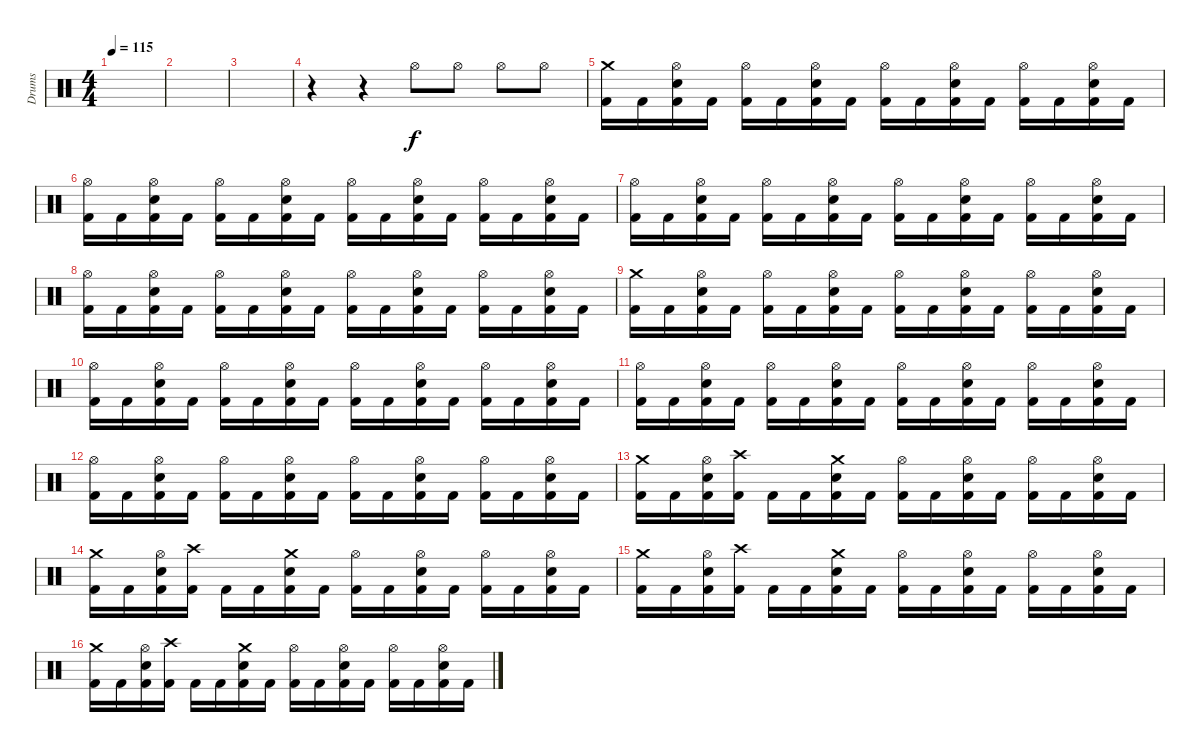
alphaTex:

\track ("Drums" "Drums") {instrument percussion}
\staff {score}
\articulation defaults
\ts (4 4)
\tempo 115
\clef neutral
\ks c
|
|
|
r.4 r.4 "Hi-Hat (open)".8 "Hi-Hat (open)".8 "Hi-Hat (open)".8 "Hi-Hat (open)".8 |
("Crash medium (hit)" "Kick (hit) 2").16 "Kick (hit) 2".16 ("Hi-Hat (open)" "Electric Snare (hit)" "Kick (hit) 2").16 "Kick (hit) 2".16 ("Hi-Hat (open)" "Kick (hit) 2").16 "Kick (hit) 2".16 ("Hi-Hat (open)" "Electric Snare (hit)" "Kick (hit) 2").16 "Kick (hit) 2".16 ("Hi-Hat (open)" "Kick (hit) 2").16 "Kick (hit) 2".16 ("Hi-Hat (open)" "Electric Snare (hit)" "Kick (hit) 2").16 "Kick (hit) 2".16 ("Hi-Hat (open)" "Kick (hit) 2").16 "Kick (hit) 2".16 ("Hi-Hat (open)" "Electric Snare (hit)" "Kick (hit) 2").16 "Kick (hit) 2".16 |
("Hi-Hat (open)" "Kick (hit) 2").16 "Kick (hit) 2".16 ("Hi-Hat (open)" "Electric Snare (hit)" "Kick (hit) 2").16 "Kick (hit) 2".16 ("Hi-Hat (open)" "Kick (hit) 2").16 "Kick (hit) 2".16 ("Hi-Hat (open)" "Electric Snare (hit)" "Kick (hit) 2").16 "Kick (hit) 2".16 ("Hi-Hat (open)" "Kick (hit) 2").16 "Kick (hit) 2".16 ("Hi-Hat (open)" "Electric Snare (hit)" "Kick (hit) 2").16 "Kick (hit) 2".16 ("Hi-Hat (open)" "Kick (hit) 2").16 "Kick (hit) 2".16 ("Hi-Hat (open)" "Electric Snare (hit)" "Kick (hit) 2").16 "Kick (hit) 2".16 |
("Hi-Hat (open)" "Kick (hit) 2").16 "Kick (hit) 2".16 ("Hi-Hat (open)" "Electric Snare (hit)" "Kick (hit) 2").16 "Kick (hit) 2".16 ("Hi-Hat (open)" "Kick (hit) 2").16 "Kick (hit) 2".16 ("Hi-Hat (open)" "Electric Snare (hit)" "Kick (hit) 2").16 "Kick (hit) 2".16 ("Hi-Hat (open)" "Kick (hit) 2").16 "Kick (hit) 2".16 ("Hi-Hat (open)" "Electric Snare (hit)" "Kick (hit) 2").16 "Kick (hit) 2".16 ("Hi-Hat (open)" "Kick (hit) 2").16 "Kick (hit) 2".16 ("Hi-Hat (open)" "Electric Snare (hit)" "Kick (hit) 2").16 "Kick (hit) 2".16 |
("Hi-Hat (open)" "Kick (hit) 2").16 "Kick (hit) 2".16 ("Hi-Hat (open)" "Electric Snare (hit)" "Kick (hit) 2").16 "Kick (hit) 2".16 ("Hi-Hat (open)" "Kick (hit) 2").16 "Kick (hit) 2".16 ("Hi-Hat (open)" "Electric Snare (hit)" "Kick (hit) 2").16 "Kick (hit) 2".16 ("Hi-Hat (open)" "Kick (hit) 2").16 "Kick (hit) 2".16 ("Hi-Hat (open)" "Electric Snare (hit)" "Kick (hit) 2").16 "Kick (hit) 2".16 ("Hi-Hat (open)" "Kick (hit) 2").16 "Kick (hit) 2".16 ("Hi-Hat (open)" "Electric Snare (hit)" "Kick (hit) 2").16 "Kick (hit) 2".16 |
("Crash medium (hit)" "Kick (hit) 2").16 "Kick (hit) 2".16 ("Hi-Hat (open)" "Electric Snare (hit)" "Kick (hit) 2").16 "Kick (hit) 2".16 ("Hi-Hat (open)" "Kick (hit) 2").16 "Kick (hit) 2".16 ("Hi-Hat (open)" "Electric Snare (hit)" "Kick (hit) 2").16 "Kick (hit) 2".16 ("Hi-Hat (open)" "Kick (hit) 2").16 "Kick (hit) 2".16 ("Hi-Hat (open)" "Electric Snare (hit)" "Kick (hit) 2").16 "Kick (hit) 2".16 ("Hi-Hat (open)" "Kick (hit) 2").16 "Kick (hit) 2".16 ("Hi-Hat (open)" "Electric Snare (hit)" "Kick (hit) 2").16 "Kick (hit) 2".16 |
("Hi-Hat (open)" "Kick (hit) 2").16 "Kick (hit) 2".16 ("Hi-Hat (open)" "Electric Snare (hit)" "Kick (hit) 2").16 "Kick (hit) 2".16 ("Hi-Hat (open)" "Kick (hit) 2").16 "Kick (hit) 2".16 ("Hi-Hat (open)" "Electric Snare (hit)" "Kick (hit) 2").16 "Kick (hit) 2".16 ("Hi-Hat (open)" "Kick (hit) 2").16 "Kick (hit) 2".16 ("Hi-Hat (open)" "Electric Snare (hit)" "Kick (hit) 2").16 "Kick (hit) 2".16 ("Hi-Hat (open)" "Kick (hit) 2").16 "Kick (hit) 2".16 ("Hi-Hat (open)" "Electric Snare (hit)" "Kick (hit) 2").16 "Kick (hit) 2".16 |
("Hi-Hat (open)" "Kick (hit) 2").16 "Kick (hit) 2".16 ("Hi-Hat (open)" "Electric Snare (hit)" "Kick (hit) 2").16 "Kick (hit) 2".16 ("Hi-Hat (open)" "Kick (hit) 2").16 "Kick (hit) 2".16 ("Hi-Hat (open)" "Electric Snare (hit)" "Kick (hit) 2").16 "Kick (hit) 2".16 ("Hi-Hat (open)" "Kick (hit) 2").16 "Kick (hit) 2".16 ("Hi-Hat (open)" "Electric Snare (hit)" "Kick (hit) 2").16 "Kick (hit) 2".16 ("Hi-Hat (open)" "Kick (hit) 2").16 "Kick (hit) 2".16 ("Hi-Hat (open)" "Electric Snare (hit)" "Kick (hit) 2").16 "Kick (hit) 2".16 |
("Hi-Hat (open)" "Kick (hit) 2").16 "Kick (hit) 2".16 ("Hi-Hat (open)" "Electric Snare (hit)" "Kick (hit) 2").16 "Kick (hit) 2".16 ("Hi-Hat (open)" "Kick (hit) 2").16 "Kick (hit) 2".16 ("Hi-Hat (open)" "Electric Snare (hit)" "Kick (hit) 2").16 "Kick (hit) 2".16 ("Hi-Hat (open)" "Kick (hit) 2").16 "Kick (hit) 2".16 ("Hi-Hat (open)" "Electric Snare (hit)" "Kick (hit) 2").16 "Kick (hit) 2".16 ("Hi-Hat (open)" "Kick (hit) 2").16 "Kick (hit) 2".16 ("Hi-Hat (open)" "Electric Snare (hit)" "Kick (hit) 2").16 "Kick (hit) 2".16 |
("Crash medium (hit)" "Kick (hit) 2").16 "Kick (hit) 2".16 ("Hi-Hat (open)" "Electric Snare (hit)" "Kick (hit) 2").16 ("Crash high (hit)" "Kick (hit) 2").16 "Kick (hit) 2".16 "Kick (hit) 2".16 ("Crash medium (hit)" "Electric Snare (hit)" "Kick (hit) 2").16 "Kick (hit) 2".16 ("Hi-Hat (open)" "Kick (hit) 2").16 "Kick (hit) 2".16 ("Hi-Hat (open)" "Electric Snare (hit)" "Kick (hit) 2").16 "Kick (hit) 2".16 ("Hi-Hat (open)" "Kick (hit) 2").16 "Kick (hit) 2".16 ("Hi-Hat (open)" "Electric Snare (hit)" "Kick (hit) 2").16 "Kick (hit) 2".16 |
("Crash medium (hit)" "Kick (hit) 2").16 "Kick (hit) 2".16 ("Hi-Hat (open)" "Electric Snare (hit)" "Kick (hit) 2").16 ("Crash high (hit)" "Kick (hit) 2").16 "Kick (hit) 2".16 "Kick (hit) 2".16 ("Crash medium (hit)" "Electric Snare (hit)" "Kick (hit) 2").16 "Kick (hit) 2".16 ("Hi-Hat (open)" "Kick (hit) 2").16 "Kick (hit) 2".16 ("Hi-Hat (open)" "Electric Snare (hit)" "Kick (hit) 2").16 "Kick (hit) 2".16 ("Hi-Hat (open)" "Kick (hit) 2").16 "Kick (hit) 2".16 ("Hi-Hat (open)" "Electric Snare (hit)" "Kick (hit) 2").16 "Kick (hit) 2".16 |
("Crash medium (hit)" "Kick (hit) 2").16 "Kick (hit) 2".16 ("Hi-Hat (open)" "Electric Snare (hit)" "Kick (hit) 2").16 ("Crash high (hit)" "Kick (hit) 2").16 "Kick (hit) 2".16 "Kick (hit) 2".16 ("Crash medium (hit)" "Electric Snare (hit)" "Kick (hit) 2").16 "Kick (hit) 2".16 ("Hi-Hat (open)" "Kick (hit) 2").16 "Kick (hit) 2".16 ("Hi-Hat (open)" "Electric Snare (hit)" "Kick (hit) 2").16 "Kick (hit) 2".16 ("Hi-Hat (open)" "Kick (hit) 2").16 "Kick (hit) 2".16 ("Hi-Hat (open)" "Electric Snare (hit)" "Kick (hit) 2").16 "Kick (hit) 2".16 |
("Crash medium (hit)" "Kick (hit) 2").16 "Kick (hit) 2".16 ("Hi-Hat (open)" "Electric Snare (hit)" "Kick (hit) 2").16 ("Crash high (hit)" "Kick (hit) 2").16 "Kick (hit) 2".16 "Kick (hit) 2".16 ("Crash medium (hit)" "Electric Snare (hit)" "Kick (hit) 2").16 "Kick (hit) 2".16 ("Hi-Hat (open)" "Kick (hit) 2").16 "Kick (hit) 2".16 ("Hi-Hat (open)" "Electric Snare (hit)" "Kick (hit) 2").16 "Kick (hit) 2".16 ("Hi-Hat (open)" "Kick (hit) 2").16 "Kick (hit) 2".16 ("Hi-Hat (open)" "Electric Snare (hit)" "Kick (hit) 2").16 "Kick (hit) 2".16
